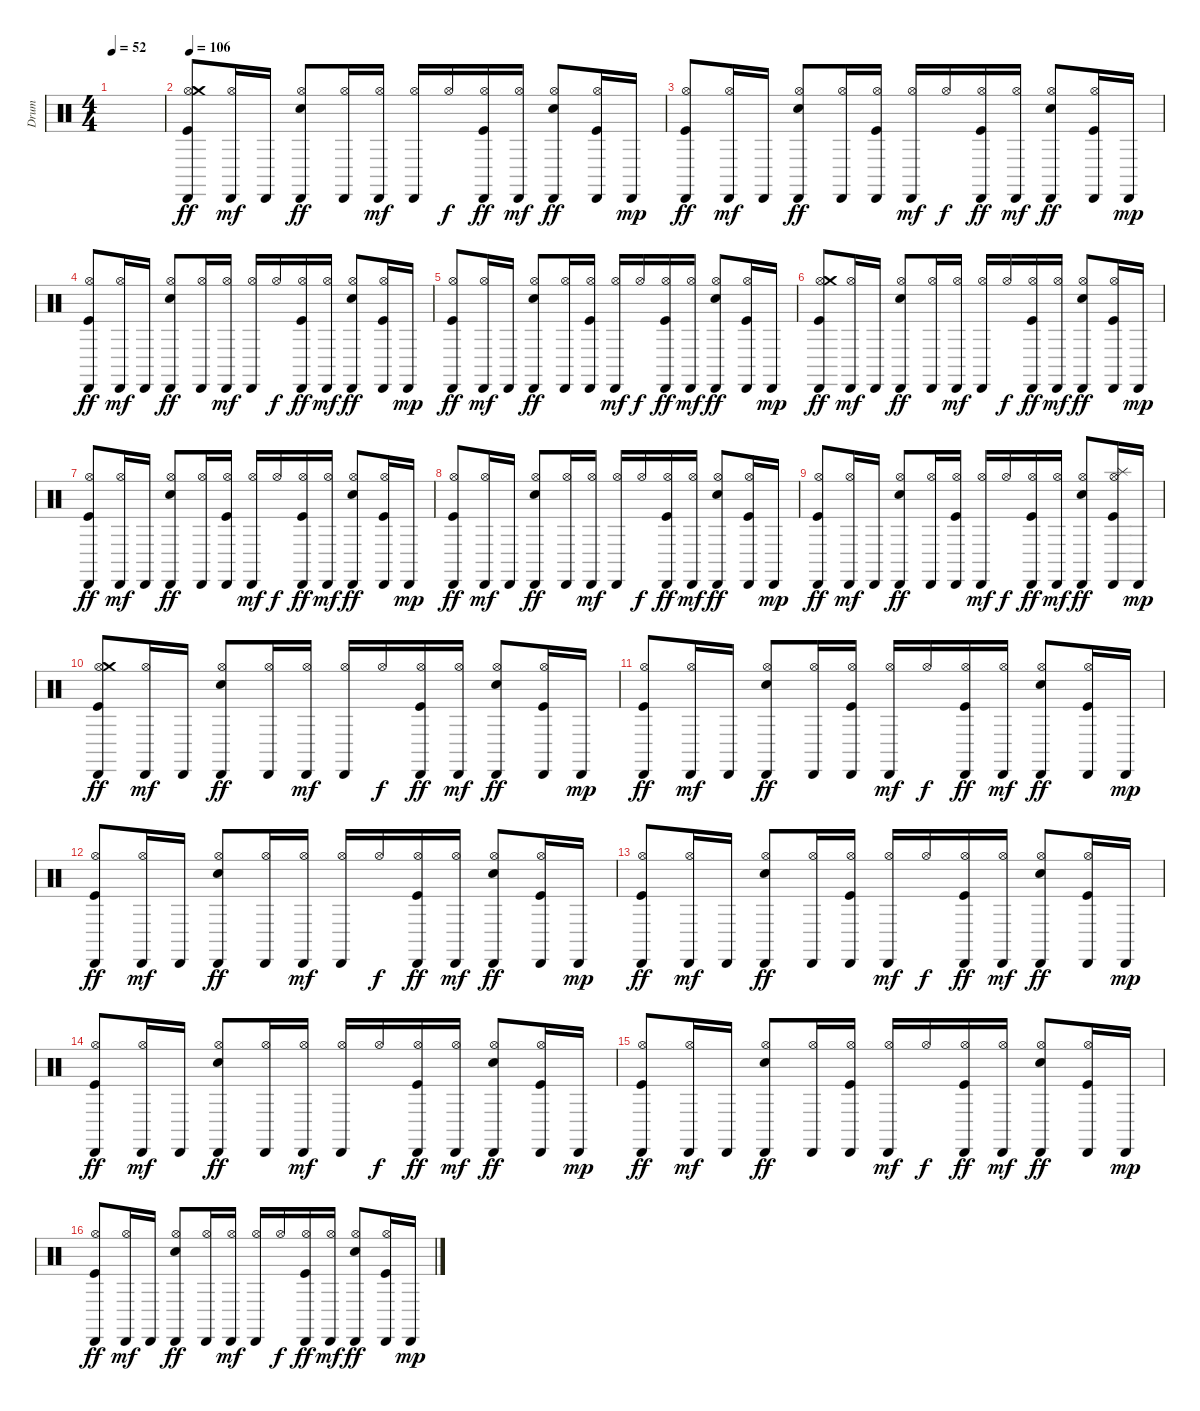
\track ("Drum" "Drum") {instrument percussion}
\staff {score}
\articulation defaults
\ts (4 4)
\tempo 52
\clef neutral
\ks c
|
\tempo 106
("Cabasa (hit)" "Hi-Hat (open)" "Crash medium (hit)" "Kick (hit)").8{dy ff} ("Cabasa (hit)" "Hi-Hat (open)").16{dy mf} "Cabasa (hit)".16 ("Cabasa (hit)" "Hi-Hat (open)" "Snare (hit) 2").8{dy ff} ("Cabasa (hit)" "Hi-Hat (open)").16 ("Cabasa (hit)" "Hi-Hat (open)").16{dy mf} ("Cabasa (hit)" "Hi-Hat (open)").16 "Hi-Hat (open)".16{dy f} ("Cabasa (hit)" "Hi-Hat (open)" "Kick (hit)").16{dy ff} ("Cabasa (hit)" "Hi-Hat (open)").16{dy mf} ("Cabasa (hit)" "Hi-Hat (open)" "Snare (hit) 2").8{dy ff} ("Cabasa (hit)" "Hi-Hat (open)" "Kick (hit)").16 "Cabasa (hit)".16{dy mp} |
("Cabasa (hit)" "Hi-Hat (open)" "Kick (hit)").8{dy ff} ("Cabasa (hit)" "Hi-Hat (open)").16{dy mf} "Cabasa (hit)".16 ("Cabasa (hit)" "Hi-Hat (open)" "Snare (hit) 2").8{dy ff} ("Cabasa (hit)" "Hi-Hat (open)").16 ("Cabasa (hit)" "Hi-Hat (open)" "Kick (hit)").16 ("Cabasa (hit)" "Hi-Hat (open)").16{dy mf} "Hi-Hat (open)".16{dy f} ("Cabasa (hit)" "Hi-Hat (open)" "Kick (hit)").16{dy ff} ("Cabasa (hit)" "Hi-Hat (open)").16{dy mf} ("Cabasa (hit)" "Hi-Hat (open)" "Snare (hit) 2").8{dy ff} ("Cabasa (hit)" "Hi-Hat (open)" "Kick (hit)").16 "Cabasa (hit)".16{dy mp} |
("Cabasa (hit)" "Hi-Hat (open)" "Kick (hit)").8{dy ff} ("Cabasa (hit)" "Hi-Hat (open)").16{dy mf} "Cabasa (hit)".16 ("Cabasa (hit)" "Hi-Hat (open)" "Snare (hit) 2").8{dy ff} ("Cabasa (hit)" "Hi-Hat (open)").16 ("Cabasa (hit)" "Hi-Hat (open)").16{dy mf} ("Cabasa (hit)" "Hi-Hat (open)").16 "Hi-Hat (open)".16{dy f} ("Cabasa (hit)" "Hi-Hat (open)" "Kick (hit)").16{dy ff} ("Cabasa (hit)" "Hi-Hat (open)").16{dy mf} ("Cabasa (hit)" "Hi-Hat (open)" "Snare (hit) 2").8{dy ff} ("Cabasa (hit)" "Hi-Hat (open)" "Kick (hit)").16 "Cabasa (hit)".16{dy mp} |
("Cabasa (hit)" "Hi-Hat (open)" "Kick (hit)").8{dy ff} ("Cabasa (hit)" "Hi-Hat (open)").16{dy mf} "Cabasa (hit)".16 ("Cabasa (hit)" "Hi-Hat (open)" "Snare (hit) 2").8{dy ff} ("Cabasa (hit)" "Hi-Hat (open)").16 ("Cabasa (hit)" "Hi-Hat (open)" "Kick (hit)").16 ("Cabasa (hit)" "Hi-Hat (open)").16{dy mf} "Hi-Hat (open)".16{dy f} ("Cabasa (hit)" "Hi-Hat (open)" "Kick (hit)").16{dy ff} ("Cabasa (hit)" "Hi-Hat (open)").16{dy mf} ("Cabasa (hit)" "Hi-Hat (open)" "Snare (hit) 2").8{dy ff} ("Cabasa (hit)" "Hi-Hat (open)" "Kick (hit)").16 "Cabasa (hit)".16{dy mp} |
("Cabasa (hit)" "Hi-Hat (open)" "Crash medium (hit)" "Kick (hit)").8{dy ff} ("Cabasa (hit)" "Hi-Hat (open)").16{dy mf} "Cabasa (hit)".16 ("Cabasa (hit)" "Hi-Hat (open)" "Snare (hit) 2").8{dy ff} ("Cabasa (hit)" "Hi-Hat (open)").16 ("Cabasa (hit)" "Hi-Hat (open)").16{dy mf} ("Cabasa (hit)" "Hi-Hat (open)").16 "Hi-Hat (open)".16{dy f} ("Cabasa (hit)" "Hi-Hat (open)" "Kick (hit)").16{dy ff} ("Cabasa (hit)" "Hi-Hat (open)").16{dy mf} ("Cabasa (hit)" "Hi-Hat (open)" "Snare (hit) 2").8{dy ff} ("Cabasa (hit)" "Hi-Hat (open)" "Kick (hit)").16 "Cabasa (hit)".16{dy mp} |
("Cabasa (hit)" "Hi-Hat (open)" "Kick (hit)").8{dy ff} ("Cabasa (hit)" "Hi-Hat (open)").16{dy mf} "Cabasa (hit)".16 ("Cabasa (hit)" "Hi-Hat (open)" "Snare (hit) 2").8{dy ff} ("Cabasa (hit)" "Hi-Hat (open)").16 ("Cabasa (hit)" "Hi-Hat (open)" "Kick (hit)").16 ("Cabasa (hit)" "Hi-Hat (open)").16{dy mf} "Hi-Hat (open)".16{dy f} ("Cabasa (hit)" "Hi-Hat (open)" "Kick (hit)").16{dy ff} ("Cabasa (hit)" "Hi-Hat (open)").16{dy mf} ("Cabasa (hit)" "Hi-Hat (open)" "Snare (hit) 2").8{dy ff} ("Cabasa (hit)" "Hi-Hat (open)" "Kick (hit)").16 "Cabasa (hit)".16{dy mp} |
("Cabasa (hit)" "Hi-Hat (open)" "Kick (hit)").8{dy ff} ("Cabasa (hit)" "Hi-Hat (open)").16{dy mf} "Cabasa (hit)".16 ("Cabasa (hit)" "Hi-Hat (open)" "Snare (hit) 2").8{dy ff} ("Cabasa (hit)" "Hi-Hat (open)").16 ("Cabasa (hit)" "Hi-Hat (open)").16{dy mf} ("Cabasa (hit)" "Hi-Hat (open)").16 "Hi-Hat (open)".16{dy f} ("Cabasa (hit)" "Hi-Hat (open)" "Kick (hit)").16{dy ff} ("Cabasa (hit)" "Hi-Hat (open)").16{dy mf} ("Cabasa (hit)" "Hi-Hat (open)" "Snare (hit) 2").8{dy ff} ("Cabasa (hit)" "Hi-Hat (open)" "Kick (hit)").16 "Cabasa (hit)".16{dy mp} |
("Cabasa (hit)" "Hi-Hat (open)" "Kick (hit)").8{dy ff} ("Cabasa (hit)" "Hi-Hat (open)").16{dy mf} "Cabasa (hit)".16 ("Cabasa (hit)" "Hi-Hat (open)" "Snare (hit) 2").8{dy ff} ("Cabasa (hit)" "Hi-Hat (open)").16 ("Cabasa (hit)" "Hi-Hat (open)" "Kick (hit)").16 ("Cabasa (hit)" "Hi-Hat (open)").16{dy mf} "Hi-Hat (open)".16{dy f} ("Cabasa (hit)" "Hi-Hat (open)" "Kick (hit)").16{dy ff} ("Cabasa (hit)" "Hi-Hat (open)").16{dy mf} ("Cabasa (hit)" "Hi-Hat (open)" "Snare (hit) 2").8{dy ff} ("Cabasa (hit)" "Hi-Hat (open)" "Splash (hit)" "Kick (hit)").16 "Cabasa (hit)".16{dy mp} |
("Cabasa (hit)" "Hi-Hat (open)" "Crash medium (hit)" "Kick (hit)").8{dy ff} ("Cabasa (hit)" "Hi-Hat (open)").16{dy mf} "Cabasa (hit)".16 ("Cabasa (hit)" "Hi-Hat (open)" "Snare (hit) 2").8{dy ff} ("Cabasa (hit)" "Hi-Hat (open)").16 ("Cabasa (hit)" "Hi-Hat (open)").16{dy mf} ("Cabasa (hit)" "Hi-Hat (open)").16 "Hi-Hat (open)".16{dy f} ("Cabasa (hit)" "Hi-Hat (open)" "Kick (hit)").16{dy ff} ("Cabasa (hit)" "Hi-Hat (open)").16{dy mf} ("Cabasa (hit)" "Hi-Hat (open)" "Snare (hit) 2").8{dy ff} ("Cabasa (hit)" "Hi-Hat (open)" "Kick (hit)").16 "Cabasa (hit)".16{dy mp} |
("Cabasa (hit)" "Hi-Hat (open)" "Kick (hit)").8{dy ff} ("Cabasa (hit)" "Hi-Hat (open)").16{dy mf} "Cabasa (hit)".16 ("Cabasa (hit)" "Hi-Hat (open)" "Snare (hit) 2").8{dy ff} ("Cabasa (hit)" "Hi-Hat (open)").16 ("Cabasa (hit)" "Hi-Hat (open)" "Kick (hit)").16 ("Cabasa (hit)" "Hi-Hat (open)").16{dy mf} "Hi-Hat (open)".16{dy f} ("Cabasa (hit)" "Hi-Hat (open)" "Kick (hit)").16{dy ff} ("Cabasa (hit)" "Hi-Hat (open)").16{dy mf} ("Cabasa (hit)" "Hi-Hat (open)" "Snare (hit) 2").8{dy ff} ("Kick (hit)" "Hi-Hat (open)" "Cabasa (hit)").16 "Cabasa (hit)".16{dy mp} |
("Cabasa (hit)" "Hi-Hat (open)" "Kick (hit)").8{dy ff} ("Cabasa (hit)" "Hi-Hat (open)").16{dy mf} "Cabasa (hit)".16 ("Cabasa (hit)" "Hi-Hat (open)" "Snare (hit) 2").8{dy ff} ("Cabasa (hit)" "Hi-Hat (open)").16 ("Cabasa (hit)" "Hi-Hat (open)").16{dy mf} ("Cabasa (hit)" "Hi-Hat (open)").16 "Hi-Hat (open)".16{dy f} ("Cabasa (hit)" "Hi-Hat (open)" "Kick (hit)").16{dy ff} ("Cabasa (hit)" "Hi-Hat (open)").16{dy mf} ("Cabasa (hit)" "Hi-Hat (open)" "Snare (hit) 2").8{dy ff} ("Cabasa (hit)" "Hi-Hat (open)" "Kick (hit)").16 "Cabasa (hit)".16{dy mp} |
("Cabasa (hit)" "Hi-Hat (open)" "Kick (hit)").8{dy ff} ("Cabasa (hit)" "Hi-Hat (open)").16{dy mf} "Cabasa (hit)".16 ("Cabasa (hit)" "Hi-Hat (open)" "Snare (hit) 2").8{dy ff} ("Cabasa (hit)" "Hi-Hat (open)").16 ("Cabasa (hit)" "Hi-Hat (open)" "Kick (hit)").16 ("Cabasa (hit)" "Hi-Hat (open)").16{dy mf} "Hi-Hat (open)".16{dy f} ("Cabasa (hit)" "Hi-Hat (open)" "Kick (hit)").16{dy ff} ("Cabasa (hit)" "Hi-Hat (open)").16{dy mf} ("Cabasa (hit)" "Hi-Hat (open)" "Snare (hit) 2").8{dy ff} ("Cabasa (hit)" "Hi-Hat (open)" "Kick (hit)").16 "Cabasa (hit)".16{dy mp} |
("Cabasa (hit)" "Hi-Hat (open)" "Kick (hit)").8{dy ff} ("Cabasa (hit)" "Hi-Hat (open)").16{dy mf} "Cabasa (hit)".16 ("Cabasa (hit)" "Hi-Hat (open)" "Snare (hit) 2").8{dy ff} ("Cabasa (hit)" "Hi-Hat (open)").16 ("Cabasa (hit)" "Hi-Hat (open)").16{dy mf} ("Cabasa (hit)" "Hi-Hat (open)").16 "Hi-Hat (open)".16{dy f} ("Cabasa (hit)" "Hi-Hat (open)" "Kick (hit)").16{dy ff} ("Cabasa (hit)" "Hi-Hat (open)").16{dy mf} ("Cabasa (hit)" "Hi-Hat (open)" "Snare (hit) 2").8{dy ff} ("Cabasa (hit)" "Hi-Hat (open)" "Kick (hit)").16 "Cabasa (hit)".16{dy mp} |
("Cabasa (hit)" "Hi-Hat (open)" "Kick (hit)").8{dy ff} ("Cabasa (hit)" "Hi-Hat (open)").16{dy mf} "Cabasa (hit)".16 ("Cabasa (hit)" "Hi-Hat (open)" "Snare (hit) 2").8{dy ff} ("Cabasa (hit)" "Hi-Hat (open)").16 ("Cabasa (hit)" "Hi-Hat (open)" "Kick (hit)").16 ("Cabasa (hit)" "Hi-Hat (open)").16{dy mf} "Hi-Hat (open)".16{dy f} ("Cabasa (hit)" "Hi-Hat (open)" "Kick (hit)").16{dy ff} ("Cabasa (hit)" "Hi-Hat (open)").16{dy mf} ("Cabasa (hit)" "Hi-Hat (open)" "Snare (hit) 2").8{dy ff} ("Cabasa (hit)" "Hi-Hat (open)" "Kick (hit)").16 "Cabasa (hit)".16{dy mp} |
("Cabasa (hit)" "Hi-Hat (open)" "Kick (hit)").8{dy ff} ("Cabasa (hit)" "Hi-Hat (open)").16{dy mf} "Cabasa (hit)".16 ("Cabasa (hit)" "Hi-Hat (open)" "Snare (hit) 2").8{dy ff} ("Cabasa (hit)" "Hi-Hat (open)").16 ("Cabasa (hit)" "Hi-Hat (open)").16{dy mf} ("Cabasa (hit)" "Hi-Hat (open)").16 "Hi-Hat (open)".16{dy f} ("Cabasa (hit)" "Hi-Hat (open)" "Kick (hit)").16{dy ff} ("Cabasa (hit)" "Hi-Hat (open)").16{dy mf} ("Cabasa (hit)" "Hi-Hat (open)" "Snare (hit) 2").8{dy ff} ("Cabasa (hit)" "Hi-Hat (open)" "Kick (hit)").16 "Cabasa (hit)".16{dy mp}
